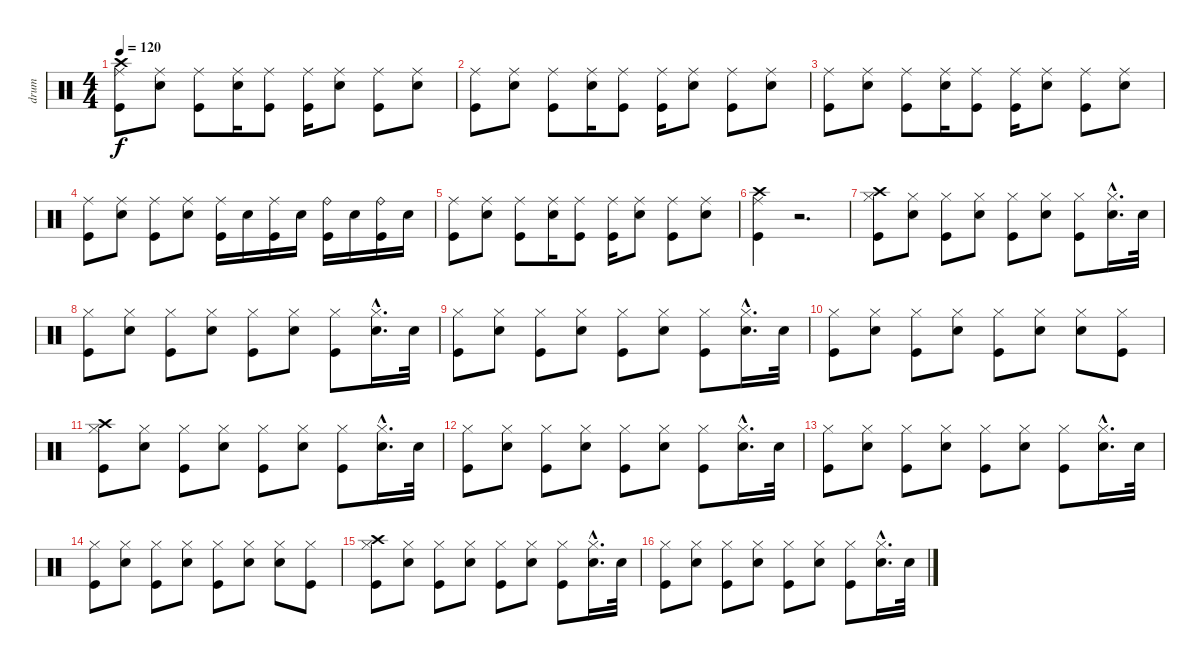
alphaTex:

\track ("drum " "drum ") {instrument percussion}
\staff {score}
\articulation defaults
\ts (4 4)
\tempo 120
\clef neutral
\ks c
("Crash high (hit)" "Ride (middle)" "Kick (hit)").8{dy f} ("Ride (middle)" "Snare (hit) 2").8 ("Ride (middle)" "Kick (hit)").8 ("Ride (middle)" "Snare (hit) 2").16 ("Ride (middle)" "Kick (hit)").8 ("Ride (middle)" "Kick (hit)").16 ("Ride (middle)" "Snare (hit) 2").8 ("Ride (middle)" "Kick (hit)").8 ("Ride (middle)" "Snare (hit) 2").8 |
("Ride (middle)" "Kick (hit)").8 ("Ride (middle)" "Snare (hit) 2").8 ("Ride (middle)" "Kick (hit)").8 ("Ride (middle)" "Snare (hit) 2").16 ("Ride (middle)" "Kick (hit)").8 ("Ride (middle)" "Kick (hit)").16 ("Ride (middle)" "Snare (hit) 2").8 ("Ride (middle)" "Kick (hit)").8 ("Ride (middle)" "Snare (hit) 2").8 |
("Ride (middle)" "Kick (hit)").8 ("Ride (middle)" "Snare (hit) 2").8 ("Ride (middle)" "Kick (hit)").8 ("Ride (middle)" "Snare (hit) 2").16 ("Ride (middle)" "Kick (hit)").8 ("Ride (middle)" "Kick (hit)").16 ("Ride (middle)" "Snare (hit) 2").8 ("Ride (middle)" "Kick (hit)").8 ("Ride (middle)" "Snare (hit) 2").8 |
("Ride (middle)" "Kick (hit)").8 ("Ride (middle)" "Snare (hit) 2").8 ("Ride (middle)" "Kick (hit)").8 ("Ride (middle)" "Snare (hit) 2").8 ("Ride (middle)" "Kick (hit)").16 "Snare (hit) 2".16 ("Ride (middle)" "Kick (hit)").16 "Snare (hit) 2".16 ("Ride (bell)" "Kick (hit)").16 "Snare (hit) 2".16 ("Ride (bell)" "Kick (hit)").16 "Snare (hit) 2".16 |
("Ride (middle)" "Kick (hit)").8 ("Ride (middle)" "Snare (hit) 2").8 ("Ride (middle)" "Kick (hit)").8 ("Ride (middle)" "Snare (hit) 2").16 ("Ride (middle)" "Kick (hit)").8 ("Ride (middle)" "Kick (hit)").16 ("Ride (middle)" "Snare (hit) 2").8 ("Ride (middle)" "Kick (hit)").8 ("Ride (middle)" "Snare (hit) 2").8 |
("Crash high (hit)" "Ride (middle)" "Kick (hit)").4 r.2{d} |
("Crash high (hit)" "Hi-Hat (closed)" "Kick (hit)").8 ("Hi-Hat (closed)" "Snare (hit) 2").8 ("Hi-Hat (closed)" "Kick (hit)").8 ("Hi-Hat (closed)" "Snare (hit) 2").8 ("Hi-Hat (closed)" "Kick (hit)").8 ("Hi-Hat (closed)" "Snare (hit) 2").8 ("Hi-Hat (closed)" "Kick (hit)").8 ("Hi-Hat (closed)"{hac} "Snare (hit) 2"{hac}).16{d} "Snare (hit) 2".32 |
("Hi-Hat (closed)" "Kick (hit)").8 ("Hi-Hat (closed)" "Snare (hit) 2").8 ("Hi-Hat (closed)" "Kick (hit)").8 ("Hi-Hat (closed)" "Snare (hit) 2").8 ("Hi-Hat (closed)" "Kick (hit)").8 ("Hi-Hat (closed)" "Snare (hit) 2").8 ("Hi-Hat (closed)" "Kick (hit)").8 ("Hi-Hat (closed)"{hac} "Snare (hit) 2"{hac}).16{d} "Snare (hit) 2".32 |
("Hi-Hat (closed)" "Kick (hit)").8 ("Hi-Hat (closed)" "Snare (hit) 2").8 ("Hi-Hat (closed)" "Kick (hit)").8 ("Hi-Hat (closed)" "Snare (hit) 2").8 ("Hi-Hat (closed)" "Kick (hit)").8 ("Hi-Hat (closed)" "Snare (hit) 2").8 ("Hi-Hat (closed)" "Kick (hit)").8 ("Hi-Hat (closed)"{hac} "Snare (hit) 2"{hac}).16{d} "Snare (hit) 2".32 |
("Hi-Hat (closed)" "Kick (hit)").8 ("Hi-Hat (closed)" "Snare (hit) 2").8 ("Hi-Hat (closed)" "Kick (hit)").8 ("Hi-Hat (closed)" "Snare (hit) 2").8 ("Hi-Hat (closed)" "Kick (hit)").8 ("Hi-Hat (closed)" "Snare (hit) 2").8 ("Hi-Hat (closed)" "Snare (hit) 2").8 ("Hi-Hat (closed)" "Kick (hit)").8 |
("Crash high (hit)" "Hi-Hat (closed)" "Kick (hit)").8 ("Hi-Hat (closed)" "Snare (hit) 2").8 ("Hi-Hat (closed)" "Kick (hit)").8 ("Hi-Hat (closed)" "Snare (hit) 2").8 ("Hi-Hat (closed)" "Kick (hit)").8 ("Hi-Hat (closed)" "Snare (hit) 2").8 ("Hi-Hat (closed)" "Kick (hit)").8 ("Hi-Hat (closed)"{hac} "Snare (hit) 2"{hac}).16{d} "Snare (hit) 2".32 |
("Hi-Hat (closed)" "Kick (hit)").8 ("Hi-Hat (closed)" "Snare (hit) 2").8 ("Hi-Hat (closed)" "Kick (hit)").8 ("Hi-Hat (closed)" "Snare (hit) 2").8 ("Hi-Hat (closed)" "Kick (hit)").8 ("Hi-Hat (closed)" "Snare (hit) 2").8 ("Hi-Hat (closed)" "Kick (hit)").8 ("Hi-Hat (closed)"{hac} "Snare (hit) 2"{hac}).16{d} "Snare (hit) 2".32 |
("Hi-Hat (closed)" "Kick (hit)").8 ("Hi-Hat (closed)" "Snare (hit) 2").8 ("Hi-Hat (closed)" "Kick (hit)").8 ("Hi-Hat (closed)" "Snare (hit) 2").8 ("Hi-Hat (closed)" "Kick (hit)").8 ("Hi-Hat (closed)" "Snare (hit) 2").8 ("Hi-Hat (closed)" "Kick (hit)").8 ("Hi-Hat (closed)"{hac} "Snare (hit) 2"{hac}).16{d} "Snare (hit) 2".32 |
("Hi-Hat (closed)" "Kick (hit)").8 ("Hi-Hat (closed)" "Snare (hit) 2").8 ("Hi-Hat (closed)" "Kick (hit)").8 ("Hi-Hat (closed)" "Snare (hit) 2").8 ("Hi-Hat (closed)" "Kick (hit)").8 ("Hi-Hat (closed)" "Snare (hit) 2").8 ("Hi-Hat (closed)" "Snare (hit) 2").8 ("Hi-Hat (closed)" "Kick (hit)").8 |
("Crash high (hit)" "Hi-Hat (closed)" "Kick (hit)").8 ("Hi-Hat (closed)" "Snare (hit) 2").8 ("Hi-Hat (closed)" "Kick (hit)").8 ("Hi-Hat (closed)" "Snare (hit) 2").8 ("Hi-Hat (closed)" "Kick (hit)").8 ("Hi-Hat (closed)" "Snare (hit) 2").8 ("Hi-Hat (closed)" "Kick (hit)").8 ("Hi-Hat (closed)"{hac} "Snare (hit) 2"{hac}).16{d} "Snare (hit) 2".32 |
("Hi-Hat (closed)" "Kick (hit)").8 ("Hi-Hat (closed)" "Snare (hit) 2").8 ("Hi-Hat (closed)" "Kick (hit)").8 ("Hi-Hat (closed)" "Snare (hit) 2").8 ("Hi-Hat (closed)" "Kick (hit)").8 ("Hi-Hat (closed)" "Snare (hit) 2").8 ("Hi-Hat (closed)" "Kick (hit)").8 ("Hi-Hat (closed)"{hac} "Snare (hit) 2"{hac}).16{d} "Snare (hit) 2".32
